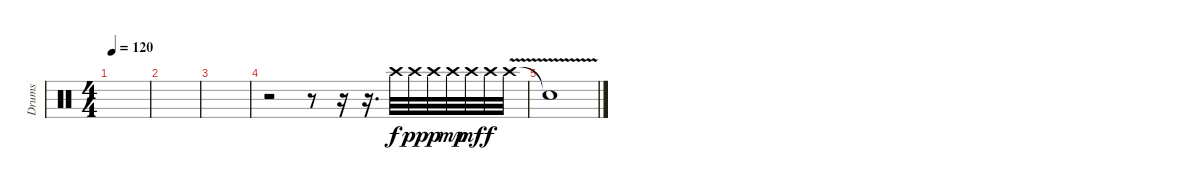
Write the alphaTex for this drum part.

\track ("Drums" "Drums") {instrument percussion}
\staff {score}
\articulation defaults
\ts (4 4)
\tempo 120
\clef neutral
\ks c
|
|
|
r.2 r.8 r.16 r.16{d} "Crash high (hit)".32 "Crash high (hit)".32{dy pp} "Crash high (hit)".32{dy p} "Crash high (hit)".32{dy mp} "Crash high (hit)".32{dy mf} "Crash high (hit)".32{dy f} "Crash high (hit)"{v}.32{volume 13} |
"Snare (hit)"{t}.1
